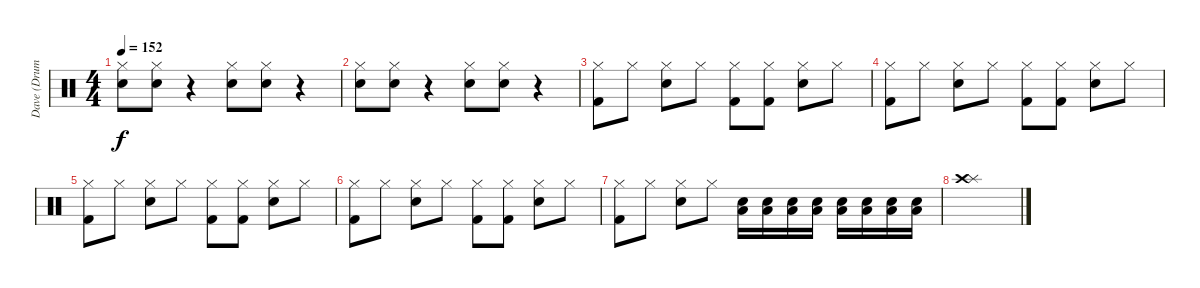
\track ("Dave (Drums)" "Dave (Drum") {instrument percussion}
\staff {score}
\articulation defaults
\ts (4 4)
\tempo 152
\clef neutral
\ks c
("Hi-Hat (closed)" "Snare (hit) 2").8{dy f} ("Hi-Hat (closed)" "Snare (hit) 2").8 r.4 ("Hi-Hat (closed)" "Snare (hit) 2").8 ("Hi-Hat (closed)" "Snare (hit) 2").8 r.4 |
("Hi-Hat (closed)" "Snare (hit) 2").8 ("Hi-Hat (closed)" "Snare (hit) 2").8 r.4 ("Hi-Hat (closed)" "Snare (hit) 2").8 ("Hi-Hat (closed)" "Snare (hit) 2").8 r.4 |
("Hi-Hat (closed)" "Kick (hit) 2").8 "Hi-Hat (closed)".8 ("Hi-Hat (closed)" "Snare (hit) 2").8 "Hi-Hat (closed)".8 ("Hi-Hat (closed)" "Kick (hit) 2").8 ("Hi-Hat (closed)" "Kick (hit) 2").8 ("Hi-Hat (closed)" "Snare (hit) 2").8 "Hi-Hat (closed)".8 |
("Hi-Hat (closed)" "Kick (hit) 2").8 "Hi-Hat (closed)".8 ("Hi-Hat (closed)" "Snare (hit) 2").8 "Hi-Hat (closed)".8 ("Hi-Hat (closed)" "Kick (hit) 2").8 ("Hi-Hat (closed)" "Kick (hit) 2").8 ("Hi-Hat (closed)" "Snare (hit) 2").8 "Hi-Hat (closed)".8 |
("Hi-Hat (closed)" "Kick (hit) 2").8 "Hi-Hat (closed)".8 ("Hi-Hat (closed)" "Snare (hit) 2").8 "Hi-Hat (closed)".8 ("Hi-Hat (closed)" "Kick (hit) 2").8 ("Hi-Hat (closed)" "Kick (hit) 2").8 ("Hi-Hat (closed)" "Snare (hit) 2").8 "Hi-Hat (closed)".8 |
("Hi-Hat (closed)" "Kick (hit) 2").8 "Hi-Hat (closed)".8 ("Hi-Hat (closed)" "Snare (hit) 2").8 "Hi-Hat (closed)".8 ("Hi-Hat (closed)" "Kick (hit) 2").8 ("Hi-Hat (closed)" "Kick (hit) 2").8 ("Hi-Hat (closed)" "Snare (hit) 2").8 "Hi-Hat (closed)".8 |
("Hi-Hat (closed)" "Kick (hit) 2").8 "Hi-Hat (closed)".8 ("Hi-Hat (closed)" "Snare (hit) 2").8 "Hi-Hat (closed)".8 ("Low Tom (hit)" "Snare (hit) 2").16 ("Low Tom (hit)" "Snare (hit) 2").16 ("Low Tom (hit)" "Snare (hit) 2").16 ("Low Tom (hit)" "Snare (hit) 2").16 ("Low Tom (hit)" "Snare (hit) 2").16 ("Low Tom (hit)" "Snare (hit) 2").16 ("Low Tom (hit)" "Snare (hit) 2").16 ("Low Tom (hit)" "Snare (hit) 2").16 |
("Splash (hit)" "Crash high (hit)").1
